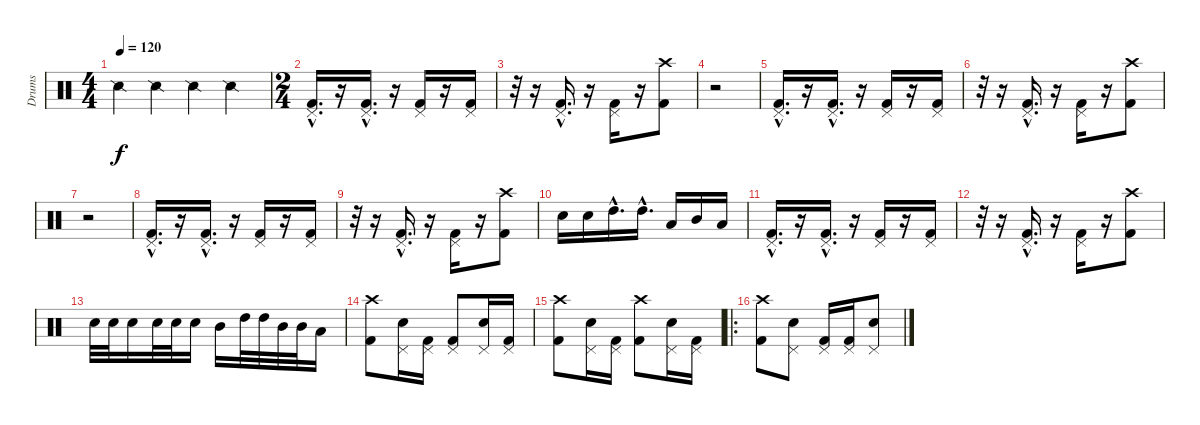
\track ("Drums" "Drums") {instrument percussion}
\staff {score}
\articulation defaults
\ts (4 4)
\tempo 120
\clef neutral
\ks c "Snare (side stick) 2".4{dy f} "Snare (side stick) 2".4 "Snare (side stick) 2".4 "Snare (side stick) 2".4
|
\ts (2 4)
("Kick (hit) 2"{hac} "Pedal Hi-Hat (hit)"{hac}).16{d} r.16 ("Kick (hit) 2"{hac} "Pedal Hi-Hat (hit)"{hac}).16{d} r.16 ("Kick (hit) 2" "Pedal Hi-Hat (hit)").16 r.16 ("Kick (hit) 2" "Pedal Hi-Hat (hit)").16 |
r.32 r.16 ("Kick (hit) 2"{hac} "Pedal Hi-Hat (hit)"{hac}).16{d} r.16 ("Kick (hit) 2" "Pedal Hi-Hat (hit)").16 r.16 ("Kick (hit) 2" "Crash high (hit)").8 |
r.2 |
("Kick (hit) 2"{hac} "Pedal Hi-Hat (hit)"{hac}).16{d} r.16 ("Kick (hit) 2"{hac} "Pedal Hi-Hat (hit)"{hac}).16{d} r.16 ("Kick (hit) 2" "Pedal Hi-Hat (hit)").16 r.16 ("Kick (hit) 2" "Pedal Hi-Hat (hit)").16 |
r.32 r.16 ("Kick (hit) 2"{hac} "Pedal Hi-Hat (hit)"{hac}).16{d} r.16 ("Kick (hit) 2" "Pedal Hi-Hat (hit)").16 r.16 ("Kick (hit) 2" "Crash high (hit)").8 |
r.2 |
("Kick (hit) 2"{hac} "Pedal Hi-Hat (hit)"{hac}).16{d} r.16 ("Kick (hit) 2"{hac} "Pedal Hi-Hat (hit)"{hac}).16{d} r.16 ("Kick (hit) 2" "Pedal Hi-Hat (hit)").16 r.16 ("Kick (hit) 2" "Pedal Hi-Hat (hit)").16 |
r.32 r.16 ("Kick (hit) 2"{hac} "Pedal Hi-Hat (hit)"{hac}).16{d} r.16 ("Kick (hit) 2" "Pedal Hi-Hat (hit)").16 r.16 ("Kick (hit) 2" "Crash high (hit)").8 |
"Electric Snare (hit)".16 "Electric Snare (hit)".16 "High Tom (hit)"{hac}.16{d} "High Tom (hit)"{hac}.16{d} "Low Tom (hit)".16 "Mid Tom (hit)".16 "Low Tom (hit)".16 |
("Kick (hit) 2"{hac} "Pedal Hi-Hat (hit)"{hac}).16{d} r.16 ("Kick (hit) 2"{hac} "Pedal Hi-Hat (hit)"{hac}).16{d} r.16 ("Kick (hit) 2" "Pedal Hi-Hat (hit)").16 r.16 ("Kick (hit) 2" "Pedal Hi-Hat (hit)").16 |
r.32 r.16 ("Kick (hit) 2"{hac} "Pedal Hi-Hat (hit)"{hac}).16{d} r.16 ("Kick (hit) 2" "Pedal Hi-Hat (hit)").16 r.16 ("Kick (hit) 2" "Crash high (hit)").8 |
"Electric Snare (hit)".32 "Electric Snare (hit)".32 "Electric Snare (hit)".16 "Electric Snare (hit)".32 "Electric Snare (hit)".32 "Electric Snare (hit)".16 "Mid Tom (hit)".16 "High Tom (hit)".32 "High Tom (hit)".32 "Mid Tom (hit)".32 "Mid Tom (hit)".32 "Low Tom (hit)".16 |
("Kick (hit) 2" "Crash high (hit)").8 ("Electric Snare (hit)" "Pedal Hi-Hat (hit)").16 ("Kick (hit) 2" "Pedal Hi-Hat (hit)").16 ("Kick (hit) 2" "Pedal Hi-Hat (hit)").8 ("Electric Snare (hit)" "Pedal Hi-Hat (hit)").16 ("Kick (hit) 2" "Pedal Hi-Hat (hit)").16 |
("Kick (hit) 2" "Crash high (hit)").8 ("Electric Snare (hit)" "Pedal Hi-Hat (hit)").16 ("Kick (hit) 2" "Pedal Hi-Hat (hit)").16 ("Kick (hit) 2" "Crash high (hit)").8 ("Electric Snare (hit)" "Pedal Hi-Hat (hit)").16 ("Kick (hit) 2" "Pedal Hi-Hat (hit)").16 |
\ro
("Kick (hit) 2" "Crash high (hit)").8 ("Electric Snare (hit)" "Pedal Hi-Hat (hit)").8 ("Kick (hit) 2" "Pedal Hi-Hat (hit)").16 ("Kick (hit) 2" "Pedal Hi-Hat (hit)").16 ("Electric Snare (hit)" "Pedal Hi-Hat (hit)").8
